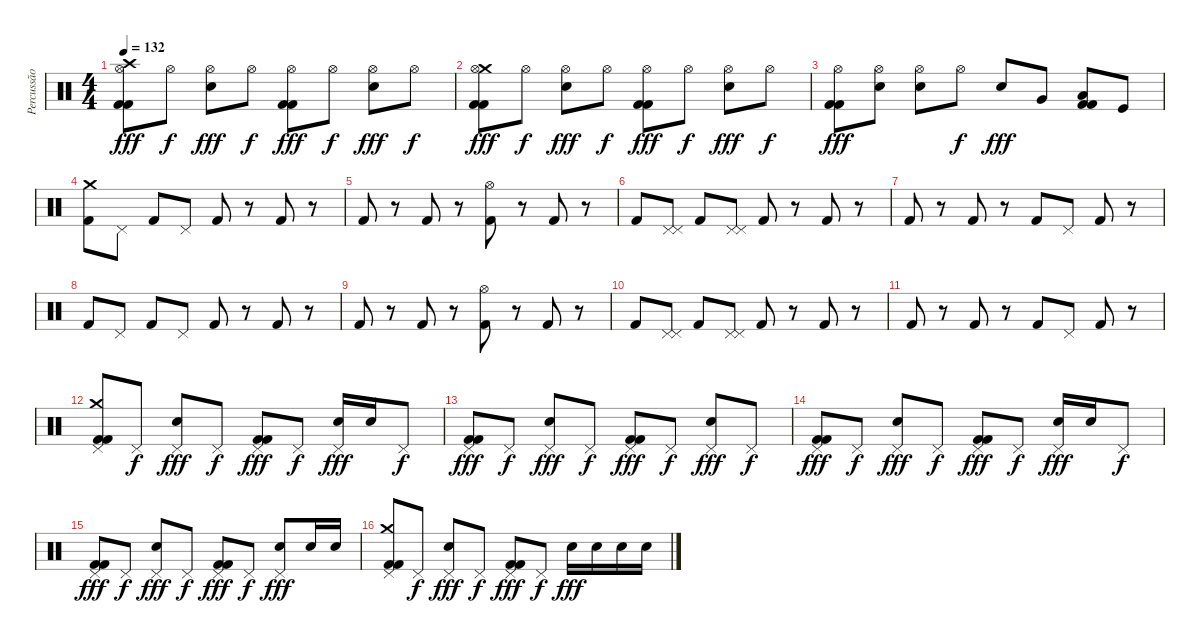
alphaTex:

\track ("Percussão" "Percussão") {instrument percussion}
\staff {score}
\articulation defaults
\ts (4 4)
\tempo 132
\clef neutral
\ks c
("Kick (hit) 2" "Kick (hit) 2" "Crash high (hit)" "Hi-Hat (open)").8{dy fff} "Hi-Hat (open)".8{dy f} ("Electric Snare (hit)" "Hi-Hat (open)").8{dy fff} "Hi-Hat (open)".8{dy f} ("Kick (hit) 2" "Kick (hit) 2" "Hi-Hat (open)").8{dy fff} "Hi-Hat (open)".8{dy f} ("Electric Snare (hit)" "Hi-Hat (open)").8{dy fff} "Hi-Hat (open)".8{dy f} |
("Kick (hit) 2" "Kick (hit) 2" "Crash medium (hit)" "Hi-Hat (open)").8{dy fff} "Hi-Hat (open)".8{dy f} ("Electric Snare (hit)" "Hi-Hat (open)").8{dy fff} "Hi-Hat (open)".8{dy f} ("Kick (hit) 2" "Kick (hit) 2" "Hi-Hat (open)").8{dy fff} "Hi-Hat (open)".8{dy f} ("Electric Snare (hit)" "Hi-Hat (open)").8{dy fff} "Hi-Hat (open)".8{dy f} |
("Kick (hit) 2" "Kick (hit) 2" "Hi-Hat (open)").8{dy fff} ("Electric Snare (hit)" "Hi-Hat (open)").8 ("Electric Snare (hit)" "Hi-Hat (open)").8 "Hi-Hat (open)".8{dy f} "Electric Snare (hit)".8{dy fff} "Very Low Tom (hit)".8 ("Low Floor Tom (hit)" "Kick (hit) 2" "Kick (hit) 2").8 "Kick (hit)".8 |
("Kick (hit) 2" "Crash medium (hit)").8 "Pedal Hi-Hat (hit)".8 "Kick (hit) 2".8 "Pedal Hi-Hat (hit)".8 "Kick (hit) 2".8 r.8 "Kick (hit) 2".8 r.8 |
"Kick (hit) 2".8 r.8 "Kick (hit) 2".8 r.8 ("Kick (hit) 2" "Hi-Hat (open)").8 r.8 "Kick (hit) 2".8 r.8 |
"Kick (hit) 2".8 ("Pedal Hi-Hat (hit)" "Pedal Hi-Hat (hit)").8 "Kick (hit) 2".8 ("Pedal Hi-Hat (hit)" "Pedal Hi-Hat (hit)").8 "Kick (hit) 2".8 r.8 "Kick (hit) 2".8 r.8 |
"Kick (hit) 2".8 r.8 "Kick (hit) 2".8 r.8 "Kick (hit) 2".8 "Pedal Hi-Hat (hit)".8 "Kick (hit) 2".8 r.8 |
"Kick (hit) 2".8 "Pedal Hi-Hat (hit)".8 "Kick (hit) 2".8 "Pedal Hi-Hat (hit)".8 "Kick (hit) 2".8 r.8 "Kick (hit) 2".8 r.8 |
"Kick (hit) 2".8 r.8 "Kick (hit) 2".8 r.8 ("Kick (hit) 2" "Hi-Hat (open)").8 r.8 "Kick (hit) 2".8 r.8 |
"Kick (hit) 2".8 ("Pedal Hi-Hat (hit)" "Pedal Hi-Hat (hit)").8 "Kick (hit) 2".8 ("Pedal Hi-Hat (hit)" "Pedal Hi-Hat (hit)").8 "Kick (hit) 2".8 r.8 "Kick (hit) 2".8 r.8 |
"Kick (hit) 2".8 r.8 "Kick (hit) 2".8 r.8 "Kick (hit) 2".8 "Pedal Hi-Hat (hit)".8 "Kick (hit) 2".8 r.8 |
("Kick (hit) 2" "Kick (hit) 2" "Crash medium (hit)" "Pedal Hi-Hat (hit)").8 "Pedal Hi-Hat (hit)".8{dy f} ("Electric Snare (hit)" "Pedal Hi-Hat (hit)").8{dy fff} "Pedal Hi-Hat (hit)".8{dy f} ("Kick (hit) 2" "Kick (hit) 2" "Pedal Hi-Hat (hit)").8{dy fff} "Pedal Hi-Hat (hit)".8{dy f} ("Electric Snare (hit)" "Pedal Hi-Hat (hit)").16{dy fff} "Electric Snare (hit)".16 "Pedal Hi-Hat (hit)".8{dy f} |
("Kick (hit) 2" "Kick (hit) 2" "Pedal Hi-Hat (hit)").8{dy fff} "Pedal Hi-Hat (hit)".8{dy f} ("Electric Snare (hit)" "Pedal Hi-Hat (hit)").8{dy fff} "Pedal Hi-Hat (hit)".8{dy f} ("Kick (hit) 2" "Kick (hit) 2" "Pedal Hi-Hat (hit)").8{dy fff} "Pedal Hi-Hat (hit)".8{dy f} ("Electric Snare (hit)" "Pedal Hi-Hat (hit)").8{dy fff} "Pedal Hi-Hat (hit)".8{dy f} |
("Kick (hit) 2" "Kick (hit) 2" "Pedal Hi-Hat (hit)").8{dy fff} "Pedal Hi-Hat (hit)".8{dy f} ("Electric Snare (hit)" "Pedal Hi-Hat (hit)").8{dy fff} "Pedal Hi-Hat (hit)".8{dy f} ("Kick (hit) 2" "Kick (hit) 2" "Pedal Hi-Hat (hit)").8{dy fff} "Pedal Hi-Hat (hit)".8{dy f} ("Electric Snare (hit)" "Pedal Hi-Hat (hit)").16{dy fff} "Electric Snare (hit)".16 "Pedal Hi-Hat (hit)".8{dy f} |
("Kick (hit) 2" "Kick (hit) 2" "Pedal Hi-Hat (hit)").8{dy fff} "Pedal Hi-Hat (hit)".8{dy f} ("Electric Snare (hit)" "Pedal Hi-Hat (hit)").8{dy fff} "Pedal Hi-Hat (hit)".8{dy f} ("Kick (hit) 2" "Kick (hit) 2" "Pedal Hi-Hat (hit)").8{dy fff} "Pedal Hi-Hat (hit)".8{dy f} ("Electric Snare (hit)" "Pedal Hi-Hat (hit)").8{dy fff} "Electric Snare (hit)".16 "Electric Snare (hit)".16 |
("Kick (hit) 2" "Kick (hit) 2" "Crash medium (hit)" "Pedal Hi-Hat (hit)").8 "Pedal Hi-Hat (hit)".8{dy f} ("Electric Snare (hit)" "Pedal Hi-Hat (hit)").8{dy fff} "Pedal Hi-Hat (hit)".8{dy f} ("Kick (hit) 2" "Kick (hit) 2" "Pedal Hi-Hat (hit)").8{dy fff} "Pedal Hi-Hat (hit)".8{dy f} "Electric Snare (hit)".16{dy fff} "Electric Snare (hit)".16 "Electric Snare (hit)".16 "Electric Snare (hit)".16
